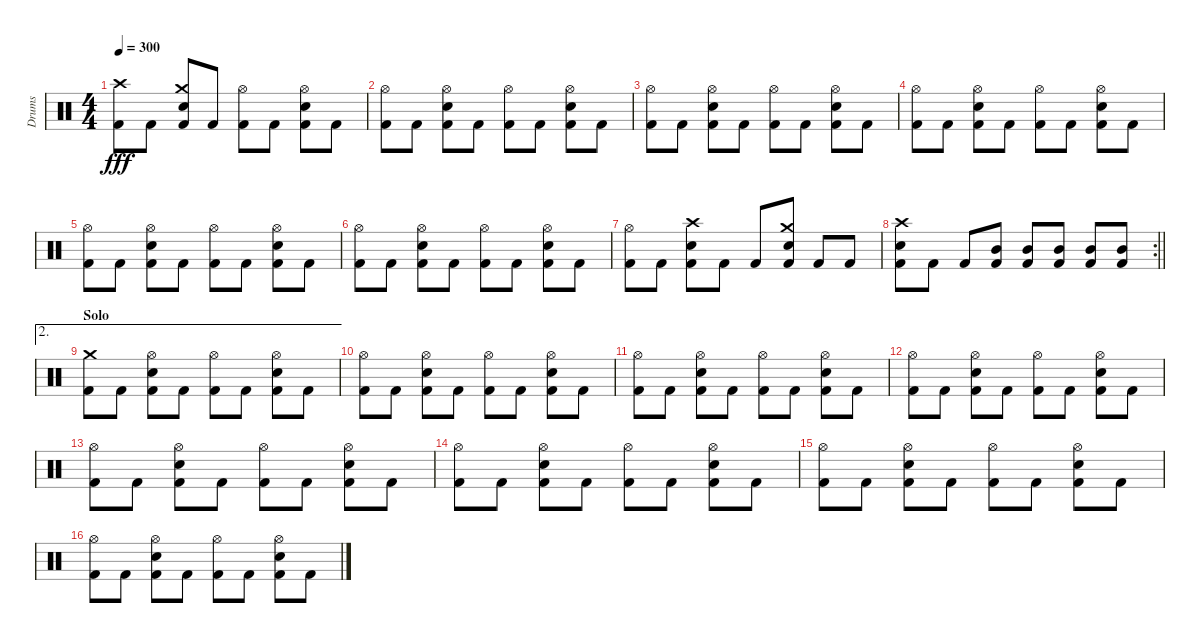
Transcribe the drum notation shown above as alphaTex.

\track ("Drums" "Drums") {instrument percussion}
\staff {score}
\articulation defaults
\ts (4 4)
\tempo 300
\clef neutral
\ks c
("Crash high (hit)" "Kick (hit) 2").8{dy fff} "Kick (hit) 2".8 ("Crash medium (hit)" "Snare (hit) 2" "Kick (hit) 2").8 "Kick (hit) 2".8 ("Hi-Hat (open)" "Kick (hit) 2").8 "Kick (hit) 2".8 ("Hi-Hat (open)" "Snare (hit) 2" "Kick (hit) 2").8 "Kick (hit) 2".8 |
("Hi-Hat (open)" "Kick (hit) 2").8 "Kick (hit) 2".8 ("Hi-Hat (open)" "Snare (hit) 2" "Kick (hit) 2").8 "Kick (hit) 2".8 ("Hi-Hat (open)" "Kick (hit) 2").8 "Kick (hit) 2".8 ("Hi-Hat (open)" "Snare (hit) 2" "Kick (hit) 2").8 "Kick (hit) 2".8 |
("Hi-Hat (open)" "Kick (hit) 2").8 "Kick (hit) 2".8 ("Hi-Hat (open)" "Snare (hit) 2" "Kick (hit) 2").8 "Kick (hit) 2".8 ("Hi-Hat (open)" "Kick (hit) 2").8 "Kick (hit) 2".8 ("Hi-Hat (open)" "Snare (hit) 2" "Kick (hit) 2").8 "Kick (hit) 2".8 |
("Hi-Hat (open)" "Kick (hit) 2").8 "Kick (hit) 2".8 ("Hi-Hat (open)" "Snare (hit) 2" "Kick (hit) 2").8 "Kick (hit) 2".8 ("Hi-Hat (open)" "Kick (hit) 2").8 "Kick (hit) 2".8 ("Hi-Hat (open)" "Snare (hit) 2" "Kick (hit) 2").8 "Kick (hit) 2".8 |
("Hi-Hat (open)" "Kick (hit) 2").8 "Kick (hit) 2".8 ("Hi-Hat (open)" "Snare (hit) 2" "Kick (hit) 2").8 "Kick (hit) 2".8 ("Hi-Hat (open)" "Kick (hit) 2").8 "Kick (hit) 2".8 ("Hi-Hat (open)" "Snare (hit) 2" "Kick (hit) 2").8 "Kick (hit) 2".8 |
("Hi-Hat (open)" "Kick (hit) 2").8 "Kick (hit) 2".8 ("Hi-Hat (open)" "Snare (hit) 2" "Kick (hit) 2").8 "Kick (hit) 2".8 ("Hi-Hat (open)" "Kick (hit) 2").8 "Kick (hit) 2".8 ("Hi-Hat (open)" "Snare (hit) 2" "Kick (hit) 2").8 "Kick (hit) 2".8 |
("Hi-Hat (open)" "Kick (hit) 2").8 "Kick (hit) 2".8 ("Crash high (hit)" "Snare (hit) 2" "Kick (hit) 2").8 "Kick (hit) 2".8 "Kick (hit) 2".8 ("Crash medium (hit)" "Snare (hit) 2" "Kick (hit) 2").8 "Kick (hit) 2".8 "Kick (hit) 2".8 |
\rc 2
\barLineRight lightlight
("Crash high (hit)" "Snare (hit) 2" "Kick (hit) 2").8 "Kick (hit) 2".8 "Kick (hit) 2".8 ("Mid Tom (hit)" "Kick (hit) 2").8 ("Mid Tom (hit)" "Kick (hit) 2").8 ("Mid Tom (hit)" "Kick (hit) 2").8 ("Mid Tom (hit)" "Kick (hit) 2").8 ("Mid Tom (hit)" "Kick (hit) 2").8 |
\ae 2
\section ("" "Solo")
("Crash medium (hit)" "Kick (hit) 2").8 "Kick (hit) 2".8 ("Hi-Hat (open)" "Snare (hit) 2" "Kick (hit) 2").8 "Kick (hit) 2".8 ("Hi-Hat (open)" "Kick (hit) 2").8 "Kick (hit) 2".8 ("Hi-Hat (open)" "Snare (hit) 2" "Kick (hit) 2").8 "Kick (hit) 2".8 |
("Hi-Hat (open)" "Kick (hit) 2").8 "Kick (hit) 2".8 ("Hi-Hat (open)" "Snare (hit) 2" "Kick (hit) 2").8 "Kick (hit) 2".8 ("Hi-Hat (open)" "Kick (hit) 2").8 "Kick (hit) 2".8 ("Hi-Hat (open)" "Snare (hit) 2" "Kick (hit) 2").8 "Kick (hit) 2".8 |
("Hi-Hat (open)" "Kick (hit) 2").8 "Kick (hit) 2".8 ("Hi-Hat (open)" "Snare (hit) 2" "Kick (hit) 2").8 "Kick (hit) 2".8 ("Hi-Hat (open)" "Kick (hit) 2").8 "Kick (hit) 2".8 ("Hi-Hat (open)" "Snare (hit) 2" "Kick (hit) 2").8 "Kick (hit) 2".8 |
("Hi-Hat (open)" "Kick (hit) 2").8 "Kick (hit) 2".8 ("Hi-Hat (open)" "Snare (hit) 2" "Kick (hit) 2").8 "Kick (hit) 2".8 ("Hi-Hat (open)" "Kick (hit) 2").8 "Kick (hit) 2".8 ("Hi-Hat (open)" "Snare (hit) 2" "Kick (hit) 2").8 "Kick (hit) 2".8 |
("Hi-Hat (open)" "Kick (hit) 2").8 "Kick (hit) 2".8 ("Hi-Hat (open)" "Snare (hit) 2" "Kick (hit) 2").8 "Kick (hit) 2".8 ("Hi-Hat (open)" "Kick (hit) 2").8 "Kick (hit) 2".8 ("Hi-Hat (open)" "Snare (hit) 2" "Kick (hit) 2").8 "Kick (hit) 2".8 |
("Hi-Hat (open)" "Kick (hit) 2").8 "Kick (hit) 2".8 ("Hi-Hat (open)" "Snare (hit) 2" "Kick (hit) 2").8 "Kick (hit) 2".8 ("Hi-Hat (open)" "Kick (hit) 2").8 "Kick (hit) 2".8 ("Hi-Hat (open)" "Snare (hit) 2" "Kick (hit) 2").8 "Kick (hit) 2".8 |
("Hi-Hat (open)" "Kick (hit) 2").8 "Kick (hit) 2".8 ("Hi-Hat (open)" "Snare (hit) 2" "Kick (hit) 2").8 "Kick (hit) 2".8 ("Hi-Hat (open)" "Kick (hit) 2").8 "Kick (hit) 2".8 ("Hi-Hat (open)" "Snare (hit) 2" "Kick (hit) 2").8 "Kick (hit) 2".8 |
("Hi-Hat (open)" "Kick (hit) 2").8 "Kick (hit) 2".8 ("Hi-Hat (open)" "Snare (hit) 2" "Kick (hit) 2").8 "Kick (hit) 2".8 ("Hi-Hat (open)" "Kick (hit) 2").8 "Kick (hit) 2".8 ("Hi-Hat (open)" "Snare (hit) 2" "Kick (hit) 2").8 "Kick (hit) 2".8
